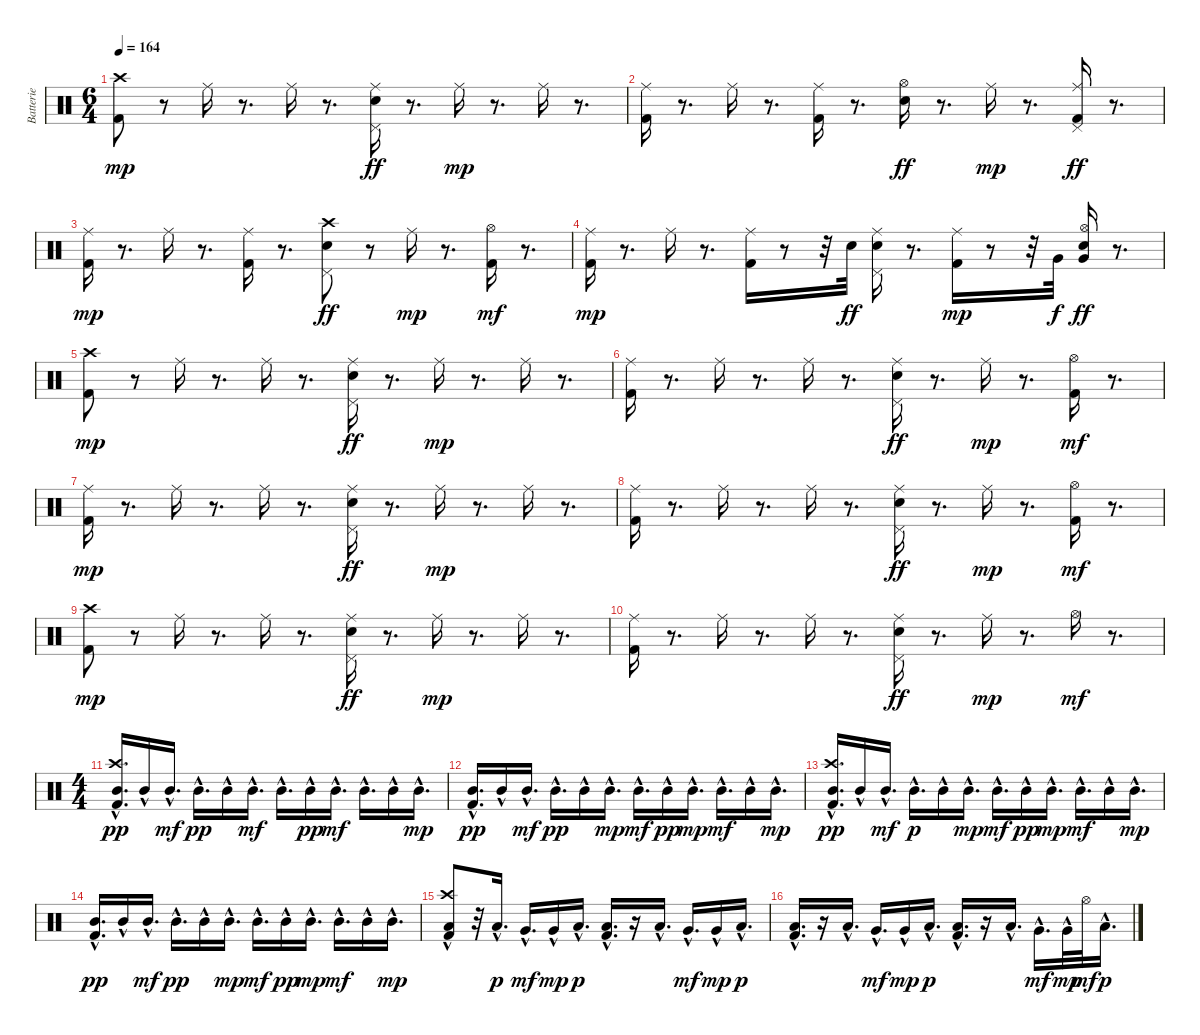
\track ("Batterie" "Batterie") {instrument percussion}
\staff {score}
\articulation defaults
\ts (6 4)
\tempo 164
\clef neutral
\ks c
("Kick (hit) 2" "Crash high (hit)").8{dy mp} r.8 "Ride (middle)".16 r.8{d} "Ride (middle)".16 r.8{d} ("Ride (middle)" "Pedal Hi-Hat (hit)" "Electric Snare (hit)").16{dy ff} r.8{d} "Ride (middle)".16{dy mp} r.8{d} "Ride (middle)".16 r.8{d} |
("Kick (hit) 2" "Ride (middle)").16 r.8{d} "Ride (middle)".16 r.8{d} ("Kick (hit) 2" "Ride (middle)").16 r.8{d} ("Hi-Hat (open)" "Electric Snare (hit)").16{dy ff} r.8{d} "Ride (middle)".16{dy mp} r.8{d} ("Kick (hit) 2" "Ride (middle)" "Pedal Hi-Hat (hit)").16{dy ff} r.8{d} |
("Kick (hit) 2" "Ride (middle)").16{dy mp} r.8{d} "Ride (middle)".16 r.8{d} ("Kick (hit) 2" "Ride (middle)").16 r.8{d} ("Crash high (hit)" "Pedal Hi-Hat (hit)" "Electric Snare (hit)").8{dy ff} r.8 "Ride (middle)".16{dy mp} r.8{d} ("Kick (hit) 2" "Hi-Hat (open)").16{dy mf} r.8{d} |
("Kick (hit) 2" "Ride (middle)").16{dy mp} r.8{d} "Ride (middle)".16 r.8{d} ("Kick (hit) 2" "Ride (middle)").16 r.8 r.32 "Electric Snare (hit)".32{dy ff} ("Ride (middle)" "Pedal Hi-Hat (hit)" "Electric Snare (hit)").16 r.8{d} ("Kick (hit) 2" "Ride (middle)").16{dy mp} r.8 r.32 "Very Low Tom (hit)".32{dy f} ("Hi-Hat (open)" "Electric Snare (hit)" "Very Low Tom (hit)").16{dy ff} r.8{d} |
("Kick (hit) 2" "Crash high (hit)").8{dy mp} r.8 "Ride (middle)".16 r.8{d} "Ride (middle)".16 r.8{d} ("Ride (middle)" "Pedal Hi-Hat (hit)" "Electric Snare (hit)").16{dy ff} r.8{d} "Ride (middle)".16{dy mp} r.8{d} "Ride (middle)".16 r.8{d} |
("Kick (hit) 2" "Ride (middle)").16 r.8{d} "Ride (middle)".16 r.8{d} "Ride (middle)".16 r.8{d} ("Ride (middle)" "Pedal Hi-Hat (hit)" "Electric Snare (hit)").16{dy ff} r.8{d} "Ride (middle)".16{dy mp} r.8{d} ("Kick (hit) 2" "Hi-Hat (open)").16{dy mf} r.8{d} |
("Kick (hit) 2" "Ride (middle)").16{dy mp} r.8{d} "Ride (middle)".16 r.8{d} "Ride (middle)".16 r.8{d} ("Ride (middle)" "Pedal Hi-Hat (hit)" "Electric Snare (hit)").16{dy ff} r.8{d} "Ride (middle)".16{dy mp} r.8{d} "Ride (middle)".16 r.8{d} |
("Kick (hit) 2" "Ride (middle)").16 r.8{d} "Ride (middle)".16 r.8{d} "Ride (middle)".16 r.8{d} ("Ride (middle)" "Pedal Hi-Hat (hit)" "Electric Snare (hit)").16{dy ff} r.8{d} "Ride (middle)".16{dy mp} r.8{d} ("Kick (hit) 2" "Hi-Hat (open)").16{dy mf} r.8{d} |
("Kick (hit) 2" "Crash high (hit)").8{dy mp} r.8 "Ride (middle)".16 r.8{d} "Ride (middle)".16 r.8{d} ("Ride (middle)" "Pedal Hi-Hat (hit)" "Electric Snare (hit)").16{dy ff} r.8{d} "Ride (middle)".16{dy mp} r.8{d} "Ride (middle)".16 r.8{d} |
("Kick (hit) 2" "Ride (middle)").16 r.8{d} "Ride (middle)".16 r.8{d} "Ride (middle)".16 r.8{d} ("Ride (middle)" "Pedal Hi-Hat (hit)" "Electric Snare (hit)").16{dy ff} r.8{d} "Ride (middle)".16{dy mp} r.8{d} "Hi-Hat (open)".16{dy mf} r.8{d} |
\ts (4 4)
("Kick (hit) 2" "Crash high (hit)" "Mid Tom (hit)"{hac}).16{d dy pp balance 14} "Mid Tom (hit)"{hac}.16{balance 14} "Mid Tom (hit)"{hac}.16{d dy mf balance 14} "Mid Tom (hit)"{hac}.16{d dy pp balance 14} "Mid Tom (hit)"{hac}.16{balance 13} "Mid Tom (hit)"{hac}.16{d dy mf balance 13} "Mid Tom (hit)"{hac}.16{d balance 13} "Mid Tom (hit)"{hac}.16{dy pp balance 13} "Mid Tom (hit)"{hac}.16{d dy mf balance 12} "Mid Tom (hit)"{hac}.16{d balance 12} "Mid Tom (hit)"{hac}.16{balance 12} "Mid Tom (hit)"{hac}.16{d dy mp balance 12} |
("Kick (hit) 2" "Mid Tom (hit)"{hac}).16{d dy pp balance 11} "Mid Tom (hit)"{hac}.16{balance 11} "Mid Tom (hit)"{hac}.16{d dy mf balance 11} "Mid Tom (hit)"{hac}.16{d dy pp balance 10} "Mid Tom (hit)"{hac}.16{balance 10} "Mid Tom (hit)"{hac}.16{d dy mp balance 10} "Mid Tom (hit)"{hac}.16{d dy mf balance 10} "Mid Tom (hit)"{hac}.16{dy pp balance 9} "Mid Tom (hit)"{hac}.16{d dy mp balance 9} "Mid Tom (hit)"{hac}.16{d dy mf balance 9} "Mid Tom (hit)"{hac}.16{balance 8} "Mid Tom (hit)"{hac}.16{d dy mp balance 8} |
("Kick (hit) 2" "Crash high (hit)" "Mid Tom (hit)"{hac}).16{d dy pp balance 8} "Mid Tom (hit)"{hac}.16{balance 8} "Mid Tom (hit)"{hac}.16{d dy mf balance 7} "Mid Tom (hit)"{hac}.16{d dy p balance 7} "Mid Tom (hit)"{hac}.16{balance 7} "Mid Tom (hit)"{hac}.16{d dy mp balance 6} "Mid Tom (hit)"{hac}.16{d dy mf balance 6} "Mid Tom (hit)"{hac}.16{dy pp balance 6} "Mid Tom (hit)"{hac}.16{d dy mp balance 6} "Mid Tom (hit)"{hac}.16{d dy mf balance 5} "Mid Tom (hit)"{hac}.16{balance 5} "Mid Tom (hit)"{hac}.16{d dy mp balance 5} |
("Kick (hit) 2" "Mid Tom (hit)"{hac}).16{d dy pp balance 4} "Mid Tom (hit)"{hac}.16{balance 4} "Mid Tom (hit)"{hac}.16{d dy mf balance 4} "Mid Tom (hit)"{hac}.16{d dy pp balance 4} "Mid Tom (hit)"{hac}.16{balance 4} "Mid Tom (hit)"{hac}.16{d dy mp balance 3} "Mid Tom (hit)"{hac}.16{d dy mf balance 3} "Mid Tom (hit)"{hac}.16{dy pp balance 3} "Mid Tom (hit)"{hac}.16{d dy mp balance 2} "Mid Tom (hit)"{hac}.16{d dy mf balance 2} "Mid Tom (hit)"{hac}.16{balance 2} "Mid Tom (hit)"{hac}.16{d dy mp balance 2} |
("Kick (hit) 2" "Crash high (hit)" "Low Floor Tom (hit)"{hac}).8{balance 1} r.32 "Low Floor Tom (hit)"{hac}.16{d dy p} "Very Low Tom (hit)"{hac}.16{d dy mf balance 8} "Very Low Tom (hit)"{hac}.16{dy mp} "Low Floor Tom (hit)"{hac}.16{d dy p} ("Kick (hit) 2"{hac} "Low Floor Tom (hit)"{hac}).16{d} r.16 "Low Floor Tom (hit)"{hac}.16{d} "Very Low Tom (hit)"{hac}.16{d dy mf} "Very Low Tom (hit)"{hac}.16{dy mp} "Low Floor Tom (hit)"{hac}.16{d dy p} |
("Kick (hit) 2" "Low Floor Tom (hit)"{hac}).16{d} r.16 "Low Floor Tom (hit)"{hac}.16{d} "Very Low Tom (hit)"{hac}.16{d dy mf} "Very Low Tom (hit)"{hac}.16{dy mp} "Low Floor Tom (hit)"{hac}.16{d dy p} ("Kick (hit) 2"{hac} "Low Floor Tom (hit)"{hac}).16{d} r.16 "Low Floor Tom (hit)"{hac}.16{d} "Very Low Tom (hit)"{hac}.16{d dy mf} "Very Low Tom (hit)"{hac}.32{dy mp} "Hi-Hat (open)".32{dy mf} "Low Floor Tom (hit)"{hac}.16{d dy p}
